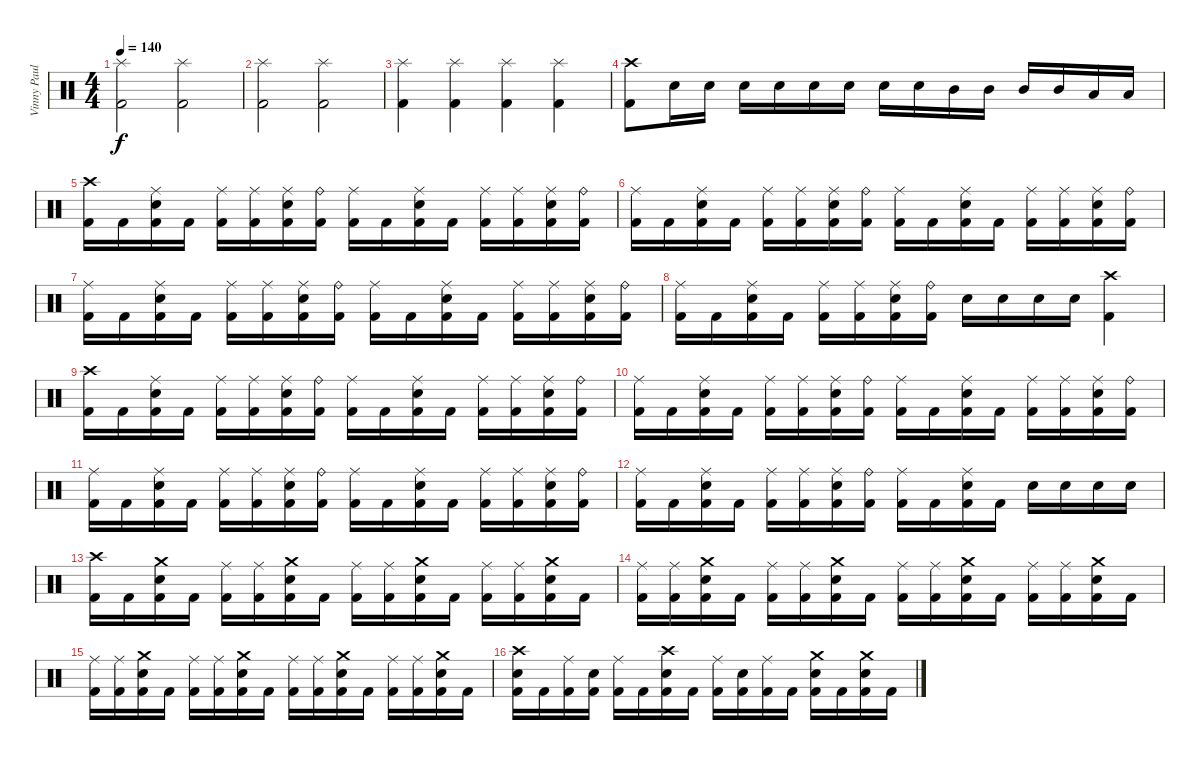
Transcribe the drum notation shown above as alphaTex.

\track ("Vinny Paul" "Vinny Paul") {instrument percussion}
\staff {score}
\articulation defaults
\ts (4 4)
\tempo 140
\clef neutral
\ks c
("Splash (hit)" "Kick (hit) 2").2{dy f} ("Splash (hit)" "Kick (hit) 2").2 |
("Splash (hit)" "Kick (hit) 2").2 ("Splash (hit)" "Kick (hit) 2").2 |
("Splash (hit)" "Kick (hit) 2").4 ("Splash (hit)" "Kick (hit) 2").4 ("Splash (hit)" "Kick (hit) 2").4 ("Splash (hit)" "Kick (hit) 2").4 |
("Crash high (hit)" "Kick (hit) 2").8 "Snare (hit) 2".16 "Snare (hit) 2".16 "Snare (hit) 2".16 "Snare (hit) 2".16 "Snare (hit) 2".16 "Snare (hit) 2".16 "Snare (hit) 2".16 "Snare (hit) 2".16 "Mid Tom (hit)".16 "Mid Tom (hit)".16 "Mid Tom (hit)".16 "Mid Tom (hit)".16 "Low Tom (hit)".16 "Low Tom (hit)".16 |
("Crash high (hit)" "Kick (hit) 2").16 "Kick (hit) 2".16 ("Ride (middle)" "Snare (hit) 2" "Kick (hit) 2").16 "Kick (hit) 2".16 ("Ride (middle)" "Kick (hit) 2").16 ("Ride (middle)" "Kick (hit) 2").16 ("Ride (middle)" "Snare (hit) 2" "Kick (hit) 2").16 ("Ride (bell)" "Kick (hit) 2").16 ("Ride (middle)" "Kick (hit) 2").16 "Kick (hit) 2".16 ("Ride (middle)" "Snare (hit) 2" "Kick (hit) 2").16 "Kick (hit) 2".16 ("Ride (middle)" "Kick (hit) 2").16 ("Ride (middle)" "Kick (hit) 2").16 ("Ride (middle)" "Snare (hit) 2" "Kick (hit) 2").16 ("Ride (bell)" "Kick (hit) 2").16 |
("Ride (middle)" "Kick (hit) 2").16 "Kick (hit) 2".16 ("Ride (middle)" "Snare (hit) 2" "Kick (hit) 2").16 "Kick (hit) 2".16 ("Ride (middle)" "Kick (hit) 2").16 ("Ride (middle)" "Kick (hit) 2").16 ("Ride (middle)" "Snare (hit) 2" "Kick (hit) 2").16 ("Ride (bell)" "Kick (hit) 2").16 ("Ride (middle)" "Kick (hit) 2").16 "Kick (hit) 2".16 ("Ride (middle)" "Snare (hit) 2" "Kick (hit) 2").16 "Kick (hit) 2".16 ("Ride (middle)" "Kick (hit) 2").16 ("Ride (middle)" "Kick (hit) 2").16 ("Ride (middle)" "Snare (hit) 2" "Kick (hit) 2").16 ("Ride (bell)" "Kick (hit) 2").16 |
("Ride (middle)" "Kick (hit) 2").16 "Kick (hit) 2".16 ("Ride (middle)" "Snare (hit) 2" "Kick (hit) 2").16 "Kick (hit) 2".16 ("Ride (middle)" "Kick (hit) 2").16 ("Ride (middle)" "Kick (hit) 2").16 ("Ride (middle)" "Snare (hit) 2" "Kick (hit) 2").16 ("Ride (bell)" "Kick (hit) 2").16 ("Ride (middle)" "Kick (hit) 2").16 "Kick (hit) 2".16 ("Ride (middle)" "Snare (hit) 2" "Kick (hit) 2").16 "Kick (hit) 2".16 ("Ride (middle)" "Kick (hit) 2").16 ("Ride (middle)" "Kick (hit) 2").16 ("Ride (middle)" "Snare (hit) 2" "Kick (hit) 2").16 ("Ride (bell)" "Kick (hit) 2").16 |
("Ride (middle)" "Kick (hit) 2").16 "Kick (hit) 2".16 ("Ride (middle)" "Snare (hit) 2" "Kick (hit) 2").16 "Kick (hit) 2".16 ("Ride (middle)" "Kick (hit) 2").16 ("Ride (middle)" "Kick (hit) 2").16 ("Ride (middle)" "Snare (hit) 2" "Kick (hit) 2").16 ("Ride (bell)" "Kick (hit) 2").16 "Snare (hit) 2".16 "Snare (hit) 2".16 "Snare (hit) 2".16 "Snare (hit) 2".16 ("Crash high (hit)" "Kick (hit) 2").4 |
("Crash high (hit)" "Kick (hit) 2").16 "Kick (hit) 2".16 ("Ride (middle)" "Snare (hit) 2" "Kick (hit) 2").16 "Kick (hit) 2".16 ("Ride (middle)" "Kick (hit) 2").16 ("Ride (middle)" "Kick (hit) 2").16 ("Ride (middle)" "Snare (hit) 2" "Kick (hit) 2").16 ("Ride (bell)" "Kick (hit) 2").16 ("Ride (middle)" "Kick (hit) 2").16 "Kick (hit) 2".16 ("Ride (middle)" "Snare (hit) 2" "Kick (hit) 2").16 "Kick (hit) 2".16 ("Ride (middle)" "Kick (hit) 2").16 ("Ride (middle)" "Kick (hit) 2").16 ("Ride (middle)" "Snare (hit) 2" "Kick (hit) 2").16 ("Ride (bell)" "Kick (hit) 2").16 |
("Ride (middle)" "Kick (hit) 2").16 "Kick (hit) 2".16 ("Ride (middle)" "Snare (hit) 2" "Kick (hit) 2").16 "Kick (hit) 2".16 ("Ride (middle)" "Kick (hit) 2").16 ("Ride (middle)" "Kick (hit) 2").16 ("Ride (middle)" "Snare (hit) 2" "Kick (hit) 2").16 ("Ride (bell)" "Kick (hit) 2").16 ("Ride (middle)" "Kick (hit) 2").16 "Kick (hit) 2".16 ("Ride (middle)" "Snare (hit) 2" "Kick (hit) 2").16 "Kick (hit) 2".16 ("Ride (middle)" "Kick (hit) 2").16 ("Ride (middle)" "Kick (hit) 2").16 ("Ride (middle)" "Snare (hit) 2" "Kick (hit) 2").16 ("Ride (bell)" "Kick (hit) 2").16 |
("Ride (middle)" "Kick (hit) 2").16 "Kick (hit) 2".16 ("Ride (middle)" "Snare (hit) 2" "Kick (hit) 2").16 "Kick (hit) 2".16 ("Ride (middle)" "Kick (hit) 2").16 ("Ride (middle)" "Kick (hit) 2").16 ("Ride (middle)" "Snare (hit) 2" "Kick (hit) 2").16 ("Ride (bell)" "Kick (hit) 2").16 ("Ride (middle)" "Kick (hit) 2").16 "Kick (hit) 2".16 ("Ride (middle)" "Snare (hit) 2" "Kick (hit) 2").16 "Kick (hit) 2".16 ("Ride (middle)" "Kick (hit) 2").16 ("Ride (middle)" "Kick (hit) 2").16 ("Ride (middle)" "Snare (hit) 2" "Kick (hit) 2").16 ("Ride (bell)" "Kick (hit) 2").16 |
("Ride (middle)" "Kick (hit) 2").16 "Kick (hit) 2".16 ("Ride (middle)" "Snare (hit) 2" "Kick (hit) 2").16 "Kick (hit) 2".16 ("Ride (middle)" "Kick (hit) 2").16 ("Ride (middle)" "Kick (hit) 2").16 ("Ride (middle)" "Snare (hit) 2" "Kick (hit) 2").16 ("Ride (bell)" "Kick (hit) 2").16 ("Ride (middle)" "Kick (hit) 2").16 "Kick (hit) 2".16 ("Ride (middle)" "Snare (hit) 2" "Kick (hit) 2").16 "Kick (hit) 2".16 "Snare (hit) 2".16 "Snare (hit) 2".16 "Snare (hit) 2".16 "Snare (hit) 2".16 |
("Crash high (hit)" "Kick (hit) 2").16 "Kick (hit) 2".16 ("Crash medium (hit)" "Snare (hit) 2" "Kick (hit) 2").16 "Kick (hit) 2".16 ("Ride (middle)" "Kick (hit) 2").16 ("Ride (middle)" "Kick (hit) 2").16 ("Crash medium (hit)" "Snare (hit) 2" "Kick (hit) 2").16 "Kick (hit) 2".16 ("Ride (middle)" "Kick (hit) 2").16 ("Ride (middle)" "Kick (hit) 2").16 ("Crash medium (hit)" "Snare (hit) 2" "Kick (hit) 2").16 "Kick (hit) 2".16 ("Ride (middle)" "Kick (hit) 2").16 ("Ride (middle)" "Kick (hit) 2").16 ("Crash medium (hit)" "Snare (hit) 2" "Kick (hit) 2").16 "Kick (hit) 2".16 |
("Ride (middle)" "Kick (hit) 2").16 ("Ride (middle)" "Kick (hit) 2").16 ("Crash medium (hit)" "Snare (hit) 2" "Kick (hit) 2").16 "Kick (hit) 2".16 ("Ride (middle)" "Kick (hit) 2").16 ("Ride (middle)" "Kick (hit) 2").16 ("Crash medium (hit)" "Snare (hit) 2" "Kick (hit) 2").16 "Kick (hit) 2".16 ("Ride (middle)" "Kick (hit) 2").16 ("Ride (middle)" "Kick (hit) 2").16 ("Crash medium (hit)" "Snare (hit) 2" "Kick (hit) 2").16 "Kick (hit) 2".16 ("Ride (middle)" "Kick (hit) 2").16 ("Ride (middle)" "Kick (hit) 2").16 ("Crash medium (hit)" "Snare (hit) 2" "Kick (hit) 2").16 "Kick (hit) 2".16 |
("Ride (middle)" "Kick (hit) 2").16 ("Ride (middle)" "Kick (hit) 2").16 ("Crash medium (hit)" "Snare (hit) 2" "Kick (hit) 2").16 "Kick (hit) 2".16 ("Ride (middle)" "Kick (hit) 2").16 ("Ride (middle)" "Kick (hit) 2").16 ("Crash medium (hit)" "Snare (hit) 2" "Kick (hit) 2").16 "Kick (hit) 2".16 ("Ride (middle)" "Kick (hit) 2").16 ("Ride (middle)" "Kick (hit) 2").16 ("Crash medium (hit)" "Snare (hit) 2" "Kick (hit) 2").16 "Kick (hit) 2".16 ("Ride (middle)" "Kick (hit) 2").16 ("Ride (middle)" "Kick (hit) 2").16 ("Crash medium (hit)" "Snare (hit) 2" "Kick (hit) 2").16 "Kick (hit) 2".16 |
("Crash high (hit)" "Snare (hit) 2" "Kick (hit) 2").16 "Kick (hit) 2".16 ("Ride (middle)" "Kick (hit) 2").16 ("Snare (hit) 2" "Kick (hit) 2").16 ("Ride (middle)" "Kick (hit) 2").16 "Kick (hit) 2".16 ("Crash high (hit)" "Snare (hit) 2" "Kick (hit) 2").16 "Kick (hit) 2".16 ("Ride (middle)" "Kick (hit) 2").16 ("Snare (hit) 2" "Kick (hit) 2").16 ("Ride (middle)" "Kick (hit) 2").16 "Kick (hit) 2".16 ("Crash medium (hit)" "Snare (hit) 2" "Kick (hit) 2").16 "Kick (hit) 2".16 ("Crash medium (hit)" "Snare (hit) 2" "Kick (hit) 2").16 "Kick (hit) 2".16
